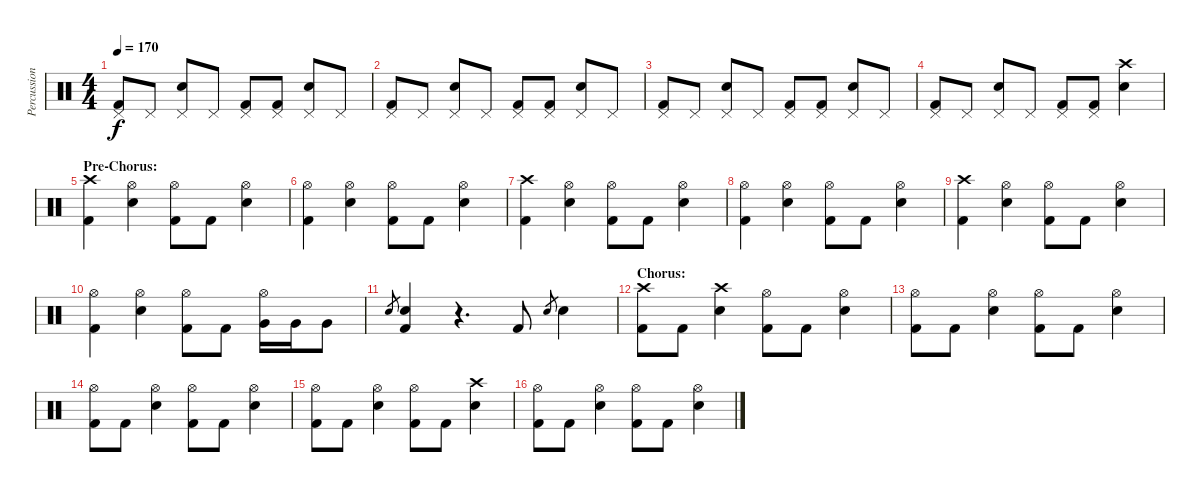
\track ("Percussion" "Percussion") {instrument percussion}
\staff {score}
\articulation defaults
\ts (4 4)
\tempo 170
\clef neutral
\ks c
("Pedal Hi-Hat (hit)" "Kick (hit) 2").8{dy f} "Pedal Hi-Hat (hit)".8 ("Pedal Hi-Hat (hit)" "Snare (hit) 2").8 "Pedal Hi-Hat (hit)".8 ("Pedal Hi-Hat (hit)" "Kick (hit) 2").8 ("Pedal Hi-Hat (hit)" "Kick (hit) 2").8 ("Pedal Hi-Hat (hit)" "Snare (hit) 2").8 "Pedal Hi-Hat (hit)".8 |
("Pedal Hi-Hat (hit)" "Kick (hit) 2").8 "Pedal Hi-Hat (hit)".8 ("Pedal Hi-Hat (hit)" "Snare (hit) 2").8 "Pedal Hi-Hat (hit)".8 ("Pedal Hi-Hat (hit)" "Kick (hit) 2").8 ("Pedal Hi-Hat (hit)" "Kick (hit) 2").8 ("Pedal Hi-Hat (hit)" "Snare (hit) 2").8 "Pedal Hi-Hat (hit)".8 |
("Pedal Hi-Hat (hit)" "Kick (hit) 2").8 "Pedal Hi-Hat (hit)".8 ("Pedal Hi-Hat (hit)" "Snare (hit) 2").8 "Pedal Hi-Hat (hit)".8 ("Pedal Hi-Hat (hit)" "Kick (hit) 2").8 ("Pedal Hi-Hat (hit)" "Kick (hit) 2").8 ("Pedal Hi-Hat (hit)" "Snare (hit) 2").8 "Pedal Hi-Hat (hit)".8 |
("Pedal Hi-Hat (hit)" "Kick (hit) 2").8 "Pedal Hi-Hat (hit)".8 ("Pedal Hi-Hat (hit)" "Snare (hit) 2").8 "Pedal Hi-Hat (hit)".8 ("Pedal Hi-Hat (hit)" "Kick (hit) 2").8 ("Pedal Hi-Hat (hit)" "Kick (hit) 2").8 ("Crash high (hit)" "Snare (hit) 2").4 |
\section ("" "Pre-Chorus:")
("Crash high (hit)" "Kick (hit) 2").4 ("Hi-Hat (open)" "Snare (hit) 2").4 ("Hi-Hat (open)" "Kick (hit) 2").8 "Kick (hit) 2".8 ("Hi-Hat (open)" "Snare (hit) 2").4 |
("Hi-Hat (open)" "Kick (hit) 2").4 ("Hi-Hat (open)" "Snare (hit) 2").4 ("Hi-Hat (open)" "Kick (hit) 2").8 "Kick (hit) 2".8 ("Hi-Hat (open)" "Snare (hit) 2").4 |
("Crash high (hit)" "Kick (hit) 2").4 ("Hi-Hat (open)" "Snare (hit) 2").4 ("Hi-Hat (open)" "Kick (hit) 2").8 "Kick (hit) 2".8 ("Hi-Hat (open)" "Snare (hit) 2").4 |
("Hi-Hat (open)" "Kick (hit) 2").4 ("Hi-Hat (open)" "Snare (hit) 2").4 ("Hi-Hat (open)" "Kick (hit) 2").8 "Kick (hit) 2".8 ("Hi-Hat (open)" "Snare (hit) 2").4 |
("Crash high (hit)" "Kick (hit) 2").4 ("Hi-Hat (open)" "Snare (hit) 2").4 ("Hi-Hat (open)" "Kick (hit) 2").8 "Kick (hit) 2".8 ("Hi-Hat (open)" "Snare (hit) 2").4 |
("Hi-Hat (open)" "Kick (hit) 2").4 ("Hi-Hat (open)" "Snare (hit) 2").4 ("Hi-Hat (open)" "Kick (hit) 2").8 "Kick (hit) 2".8 ("Hi-Hat (open)" "Very Low Tom (hit)").16 "Very Low Tom (hit)".16 "Very Low Tom (hit)".8 |
"Snare (hit) 2".8{gr} ("Snare (hit) 2" "Kick (hit) 2").4 r.4{d} "Kick (hit) 2".8 "Snare (hit) 2".8{gr} "Snare (hit) 2".4 |
\section ("" "Chorus:")
("Crash high (hit)" "Kick (hit) 2").8 "Kick (hit) 2".8 ("Crash high (hit)" "Snare (hit) 2").4 ("Hi-Hat (open)" "Kick (hit) 2").8 "Kick (hit) 2".8 ("Hi-Hat (open)" "Snare (hit) 2").4 |
("Hi-Hat (open)" "Kick (hit) 2").8 "Kick (hit) 2".8 ("Hi-Hat (open)" "Snare (hit) 2").4 ("Hi-Hat (open)" "Kick (hit) 2").8 "Kick (hit) 2".8 ("Hi-Hat (open)" "Snare (hit) 2").4 |
("Hi-Hat (open)" "Kick (hit) 2").8 "Kick (hit) 2".8 ("Hi-Hat (open)" "Snare (hit) 2").4 ("Hi-Hat (open)" "Kick (hit) 2").8 "Kick (hit) 2".8 ("Hi-Hat (open)" "Snare (hit) 2").4 |
("Hi-Hat (open)" "Kick (hit) 2").8 "Kick (hit) 2".8 ("Hi-Hat (open)" "Snare (hit) 2").4 ("Hi-Hat (open)" "Kick (hit) 2").8 "Kick (hit) 2".8 ("Crash high (hit)" "Snare (hit) 2").4 |
("Hi-Hat (open)" "Kick (hit) 2").8 "Kick (hit) 2".8 ("Hi-Hat (open)" "Snare (hit) 2").4 ("Hi-Hat (open)" "Kick (hit) 2").8 "Kick (hit) 2".8 ("Hi-Hat (open)" "Snare (hit) 2").4
